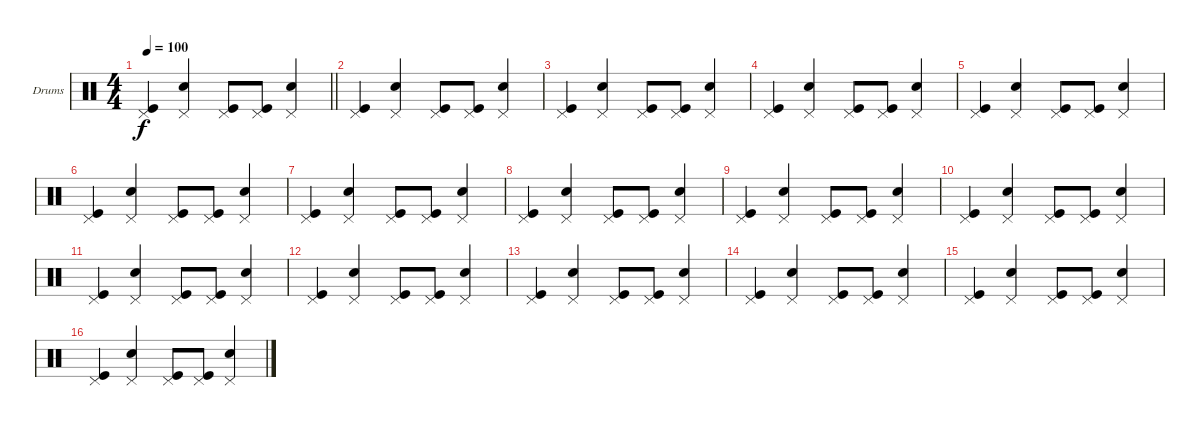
\bracketExtendMode groupsimilarinstruments
\firstSystemTrackNameOrientation horizontal
\otherSystemsTrackNameOrientation horizontal
\track ("Drumkit" "Drums") {instrument percussion}
\staff {score}
\articulation defaults
\ts (4 4)
\tempo 100
\clef neutral
\barLineRight lightlight
\ks c
("Pedal Hi-Hat (hit)" "Kick (hit)").4{dy f} ("Pedal Hi-Hat (hit)" "Snare (hit) 2").4 ("Pedal Hi-Hat (hit)" "Kick (hit)").8 ("Pedal Hi-Hat (hit)" "Kick (hit)").8 ("Pedal Hi-Hat (hit)" "Snare (hit) 2").4 |
("Pedal Hi-Hat (hit)" "Kick (hit)").4 ("Pedal Hi-Hat (hit)" "Snare (hit) 2").4 ("Pedal Hi-Hat (hit)" "Kick (hit)").8 ("Pedal Hi-Hat (hit)" "Kick (hit)").8 ("Pedal Hi-Hat (hit)" "Snare (hit) 2").4 |
("Pedal Hi-Hat (hit)" "Kick (hit)").4 ("Pedal Hi-Hat (hit)" "Snare (hit) 2").4 ("Pedal Hi-Hat (hit)" "Kick (hit)").8 ("Pedal Hi-Hat (hit)" "Kick (hit)").8 ("Pedal Hi-Hat (hit)" "Snare (hit) 2").4 |
("Pedal Hi-Hat (hit)" "Kick (hit)").4 ("Pedal Hi-Hat (hit)" "Snare (hit) 2").4 ("Pedal Hi-Hat (hit)" "Kick (hit)").8 ("Pedal Hi-Hat (hit)" "Kick (hit)").8 ("Pedal Hi-Hat (hit)" "Snare (hit) 2").4 |
("Pedal Hi-Hat (hit)" "Kick (hit)").4 ("Pedal Hi-Hat (hit)" "Snare (hit) 2").4 ("Pedal Hi-Hat (hit)" "Kick (hit)").8 ("Pedal Hi-Hat (hit)" "Kick (hit)").8 ("Pedal Hi-Hat (hit)" "Snare (hit) 2").4 |
("Pedal Hi-Hat (hit)" "Kick (hit)").4 ("Pedal Hi-Hat (hit)" "Snare (hit) 2").4 ("Pedal Hi-Hat (hit)" "Kick (hit)").8 ("Pedal Hi-Hat (hit)" "Kick (hit)").8 ("Pedal Hi-Hat (hit)" "Snare (hit) 2").4 |
("Pedal Hi-Hat (hit)" "Kick (hit)").4 ("Pedal Hi-Hat (hit)" "Snare (hit) 2").4 ("Pedal Hi-Hat (hit)" "Kick (hit)").8 ("Pedal Hi-Hat (hit)" "Kick (hit)").8 ("Pedal Hi-Hat (hit)" "Snare (hit) 2").4 |
("Pedal Hi-Hat (hit)" "Kick (hit)").4 ("Pedal Hi-Hat (hit)" "Snare (hit) 2").4 ("Pedal Hi-Hat (hit)" "Kick (hit)").8 ("Pedal Hi-Hat (hit)" "Kick (hit)").8 ("Pedal Hi-Hat (hit)" "Snare (hit) 2").4 |
("Pedal Hi-Hat (hit)" "Kick (hit)").4 ("Pedal Hi-Hat (hit)" "Snare (hit) 2").4 ("Pedal Hi-Hat (hit)" "Kick (hit)").8 ("Pedal Hi-Hat (hit)" "Kick (hit)").8 ("Pedal Hi-Hat (hit)" "Snare (hit) 2").4 |
("Pedal Hi-Hat (hit)" "Kick (hit)").4 ("Pedal Hi-Hat (hit)" "Snare (hit) 2").4 ("Pedal Hi-Hat (hit)" "Kick (hit)").8 ("Pedal Hi-Hat (hit)" "Kick (hit)").8 ("Pedal Hi-Hat (hit)" "Snare (hit) 2").4 |
("Pedal Hi-Hat (hit)" "Kick (hit)").4 ("Pedal Hi-Hat (hit)" "Snare (hit) 2").4 ("Pedal Hi-Hat (hit)" "Kick (hit)").8 ("Pedal Hi-Hat (hit)" "Kick (hit)").8 ("Pedal Hi-Hat (hit)" "Snare (hit) 2").4 |
("Pedal Hi-Hat (hit)" "Kick (hit)").4 ("Pedal Hi-Hat (hit)" "Snare (hit) 2").4 ("Pedal Hi-Hat (hit)" "Kick (hit)").8 ("Pedal Hi-Hat (hit)" "Kick (hit)").8 ("Pedal Hi-Hat (hit)" "Snare (hit) 2").4 |
("Pedal Hi-Hat (hit)" "Kick (hit)").4 ("Pedal Hi-Hat (hit)" "Snare (hit) 2").4 ("Pedal Hi-Hat (hit)" "Kick (hit)").8 ("Pedal Hi-Hat (hit)" "Kick (hit)").8 ("Pedal Hi-Hat (hit)" "Snare (hit) 2").4 |
("Pedal Hi-Hat (hit)" "Kick (hit)").4 ("Pedal Hi-Hat (hit)" "Snare (hit) 2").4 ("Pedal Hi-Hat (hit)" "Kick (hit)").8 ("Pedal Hi-Hat (hit)" "Kick (hit)").8 ("Pedal Hi-Hat (hit)" "Snare (hit) 2").4 |
("Pedal Hi-Hat (hit)" "Kick (hit)").4 ("Pedal Hi-Hat (hit)" "Snare (hit) 2").4 ("Pedal Hi-Hat (hit)" "Kick (hit)").8 ("Pedal Hi-Hat (hit)" "Kick (hit)").8 ("Pedal Hi-Hat (hit)" "Snare (hit) 2").4 |
("Pedal Hi-Hat (hit)" "Kick (hit)").4 ("Pedal Hi-Hat (hit)" "Snare (hit) 2").4 ("Pedal Hi-Hat (hit)" "Kick (hit)").8 ("Pedal Hi-Hat (hit)" "Kick (hit)").8 ("Pedal Hi-Hat (hit)" "Snare (hit) 2").4
